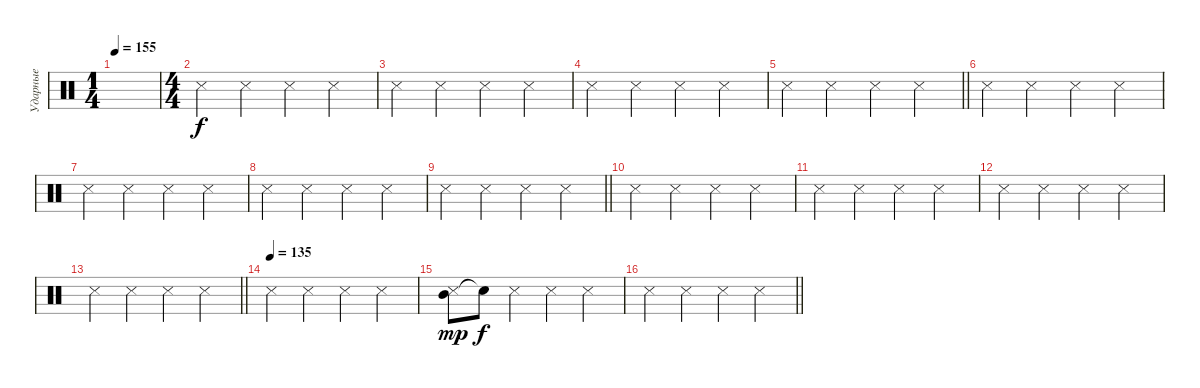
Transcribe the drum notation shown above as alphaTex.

\track ("Ударные" "Ударные") {instrument percussion}
\staff {score}
\articulation defaults
\ts (1 4)
\tempo 155
\tempo 135
\tempo 155
\clef neutral
\ks c
|
\ts (4 4)
"Snare (side stick) 3".4 "Snare (side stick) 3".4 "Snare (side stick) 3".4 "Snare (side stick) 3".4 |
"Snare (side stick) 3".4 "Snare (side stick) 3".4 "Snare (side stick) 3".4 "Snare (side stick) 3".4 |
"Snare (side stick) 3".4 "Snare (side stick) 3".4 "Snare (side stick) 3".4 "Snare (side stick) 3".4 |
\barLineRight lightlight "Snare (side stick) 3".4 "Snare (side stick) 3".4 "Snare (side stick) 3".4 "Snare (side stick) 3".4
|
\section ("" " ")
"Snare (side stick) 3".4 "Snare (side stick) 3".4 "Snare (side stick) 3".4 "Snare (side stick) 3".4 |
"Snare (side stick) 3".4 "Snare (side stick) 3".4 "Snare (side stick) 3".4 "Snare (side stick) 3".4 |
"Snare (side stick) 3".4 "Snare (side stick) 3".4 "Snare (side stick) 3".4 "Snare (side stick) 3".4 |
\barLineRight lightlight "Snare (side stick) 3".4 "Snare (side stick) 3".4 "Snare (side stick) 3".4 "Snare (side stick) 3".4
|
\section ("" " ")
"Snare (side stick) 3".4 "Snare (side stick) 3".4 "Snare (side stick) 3".4 "Snare (side stick) 3".4 |
"Snare (side stick) 3".4 "Snare (side stick) 3".4 "Snare (side stick) 3".4 "Snare (side stick) 3".4 |
"Snare (side stick) 3".4 "Snare (side stick) 3".4 "Snare (side stick) 3".4 "Snare (side stick) 3".4 |
\barLineRight lightlight "Snare (side stick) 3".4 "Snare (side stick) 3".4 "Snare (side stick) 3".4 "Snare (side stick) 3".4
|
\section ("" " ")
\tempo (135)
"Snare (side stick) 3".4 "Snare (side stick) 3".4 "Snare (side stick) 3".4 "Snare (side stick) 3".4 |
("Mid Tom (hit)" "Snare (side stick) 3").8{dy mp} "Snare (hit)"{t}.8{dy f} "Snare (side stick) 3".4 "Snare (side stick) 3".4 "Snare (side stick) 3".4 |
\barLineRight lightlight "Snare (side stick) 3".4 "Snare (side stick) 3".4 "Snare (side stick) 3".4 "Snare (side stick) 3".4
